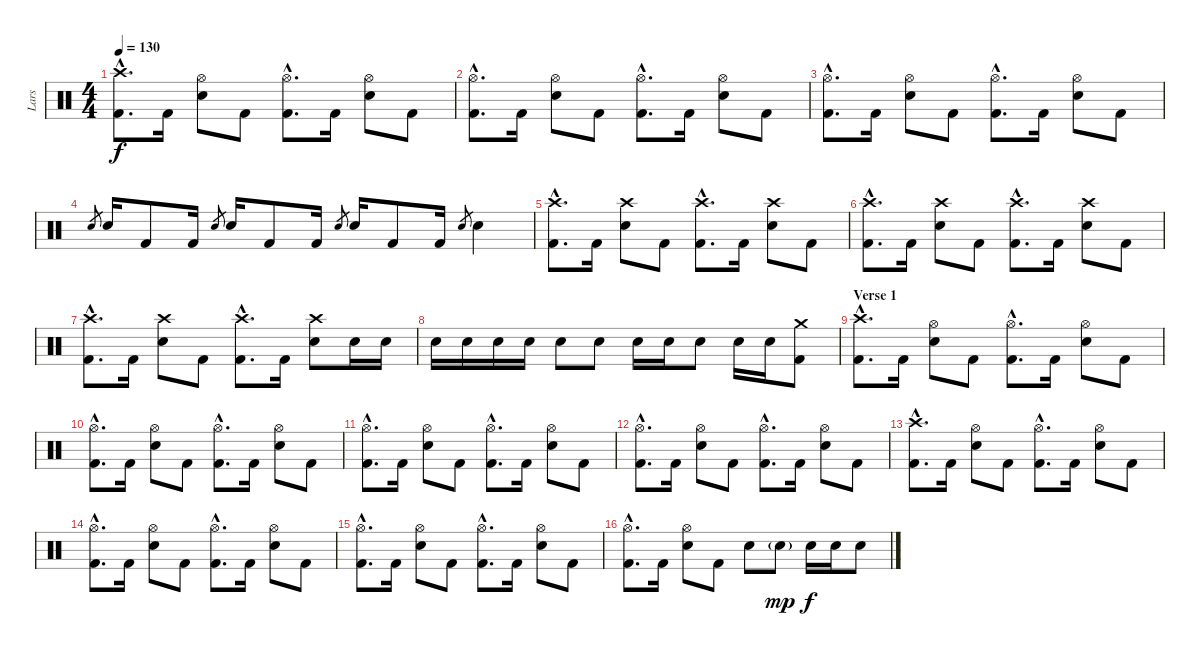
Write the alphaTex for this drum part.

\track ("Lars" "Lars") {instrument percussion}
\staff {score}
\articulation defaults
\ts (4 4)
\tempo 130
\clef neutral
\ks c
("Kick (hit) 2"{hac} "Crash high (hit)"{hac}).8{d dy f} "Kick (hit) 2".16 ("Electric Snare (hit)" "Hi-Hat (open)").8 "Kick (hit) 2".8 ("Kick (hit) 2"{hac} "Hi-Hat (open)"{hac}).8{d} "Kick (hit) 2".16 ("Electric Snare (hit)" "Hi-Hat (open)").8 "Kick (hit) 2".8 |
("Kick (hit) 2"{hac} "Hi-Hat (open)"{hac}).8{d} "Kick (hit) 2".16 ("Electric Snare (hit)" "Hi-Hat (open)").8 "Kick (hit) 2".8 ("Kick (hit) 2"{hac} "Hi-Hat (open)"{hac}).8{d} "Kick (hit) 2".16 ("Electric Snare (hit)" "Hi-Hat (open)").8 "Kick (hit) 2".8 |
("Kick (hit) 2"{hac} "Hi-Hat (open)"{hac}).8{d} "Kick (hit) 2".16 ("Electric Snare (hit)" "Hi-Hat (open)").8 "Kick (hit) 2".8 ("Kick (hit) 2"{hac} "Hi-Hat (open)"{hac}).8{d} "Kick (hit) 2".16 ("Electric Snare (hit)" "Hi-Hat (open)").8 "Kick (hit) 2".8 |
"Electric Snare (hit)".8{gr} "Electric Snare (hit)".16 "Kick (hit) 2".8 "Kick (hit) 2".16 "Electric Snare (hit)".8{gr} "Electric Snare (hit)".16 "Kick (hit) 2".8 "Kick (hit) 2".16 "Electric Snare (hit)".8{gr} "Electric Snare (hit)".16 "Kick (hit) 2".8 "Kick (hit) 2".16 "Electric Snare (hit)".8{gr} "Electric Snare (hit)".4 |
\section ("" "")
("Kick (hit) 2"{hac} "Crash high (hit)"{hac}).8{d} "Kick (hit) 2".16 ("Electric Snare (hit)" "Crash high (hit)").8 "Kick (hit) 2".8 ("Kick (hit) 2"{hac} "Crash high (hit)"{hac}).8{d} "Kick (hit) 2".16 ("Electric Snare (hit)" "Crash high (hit)").8 "Kick (hit) 2".8 |
("Kick (hit) 2"{hac} "Crash high (hit)"{hac}).8{d} "Kick (hit) 2".16 ("Electric Snare (hit)" "Crash high (hit)").8 "Kick (hit) 2".8 ("Kick (hit) 2"{hac} "Crash high (hit)"{hac}).8{d} "Kick (hit) 2".16 ("Electric Snare (hit)" "Crash high (hit)").8 "Kick (hit) 2".8 |
("Kick (hit) 2"{hac} "Crash high (hit)"{hac}).8{d} "Kick (hit) 2".16 ("Electric Snare (hit)" "Crash high (hit)").8 "Kick (hit) 2".8 ("Kick (hit) 2"{hac} "Crash high (hit)"{hac}).8{d} "Kick (hit) 2".16 ("Electric Snare (hit)" "Crash high (hit)").8 "Electric Snare (hit)".16 "Electric Snare (hit)".16 |
"Electric Snare (hit)".16 "Electric Snare (hit)".16 "Electric Snare (hit)".16 "Electric Snare (hit)".16 "Electric Snare (hit)".8 "Electric Snare (hit)".8 "Electric Snare (hit)".16 "Electric Snare (hit)".16 "Electric Snare (hit)".8 "Electric Snare (hit)".16 "Electric Snare (hit)".16 ("Kick (hit) 2" "Crash medium (hit)").8 |
\section ("" "Verse 1")
("Kick (hit) 2"{hac} "Crash high (hit)"{hac}).8{d} "Kick (hit) 2".16 ("Electric Snare (hit)" "Hi-Hat (open)").8 "Kick (hit) 2".8 ("Kick (hit) 2"{hac} "Hi-Hat (open)"{hac}).8{d} "Kick (hit) 2".16 ("Electric Snare (hit)" "Hi-Hat (open)").8 "Kick (hit) 2".8 |
("Kick (hit) 2"{hac} "Hi-Hat (open)"{hac}).8{d} "Kick (hit) 2".16 ("Electric Snare (hit)" "Hi-Hat (open)").8 "Kick (hit) 2".8 ("Kick (hit) 2"{hac} "Hi-Hat (open)"{hac}).8{d} "Kick (hit) 2".16 ("Electric Snare (hit)" "Hi-Hat (open)").8 "Kick (hit) 2".8 |
("Kick (hit) 2"{hac} "Hi-Hat (open)"{hac}).8{d} "Kick (hit) 2".16 ("Electric Snare (hit)" "Hi-Hat (open)").8 "Kick (hit) 2".8 ("Kick (hit) 2"{hac} "Hi-Hat (open)"{hac}).8{d} "Kick (hit) 2".16 ("Electric Snare (hit)" "Hi-Hat (open)").8 "Kick (hit) 2".8 |
("Kick (hit) 2"{hac} "Hi-Hat (open)"{hac}).8{d} "Kick (hit) 2".16 ("Electric Snare (hit)" "Hi-Hat (open)").8 "Kick (hit) 2".8 ("Kick (hit) 2"{hac} "Hi-Hat (open)"{hac}).8{d} "Kick (hit) 2".16 ("Electric Snare (hit)" "Hi-Hat (open)").8 "Kick (hit) 2".8 |
("Kick (hit) 2"{hac} "Crash high (hit)"{hac}).8{d} "Kick (hit) 2".16 ("Electric Snare (hit)" "Hi-Hat (open)").8 "Kick (hit) 2".8 ("Kick (hit) 2"{hac} "Hi-Hat (open)"{hac}).8{d} "Kick (hit) 2".16 ("Electric Snare (hit)" "Hi-Hat (open)").8 "Kick (hit) 2".8 |
("Kick (hit) 2"{hac} "Hi-Hat (open)"{hac}).8{d} "Kick (hit) 2".16 ("Electric Snare (hit)" "Hi-Hat (open)").8 "Kick (hit) 2".8 ("Kick (hit) 2"{hac} "Hi-Hat (open)"{hac}).8{d} "Kick (hit) 2".16 ("Electric Snare (hit)" "Hi-Hat (open)").8 "Kick (hit) 2".8 |
("Kick (hit) 2"{hac} "Hi-Hat (open)"{hac}).8{d} "Kick (hit) 2".16 ("Electric Snare (hit)" "Hi-Hat (open)").8 "Kick (hit) 2".8 ("Kick (hit) 2"{hac} "Hi-Hat (open)"{hac}).8{d} "Kick (hit) 2".16 ("Electric Snare (hit)" "Hi-Hat (open)").8 "Kick (hit) 2".8 |
("Kick (hit) 2"{hac} "Hi-Hat (open)"{hac}).8{d} "Kick (hit) 2".16 ("Electric Snare (hit)" "Hi-Hat (open)").8 "Kick (hit) 2".8 "Electric Snare (hit)".8 "Electric Snare (hit)"{g}.8{dy mp} "Electric Snare (hit)".16{dy f} "Electric Snare (hit)".16 "Electric Snare (hit)".8
